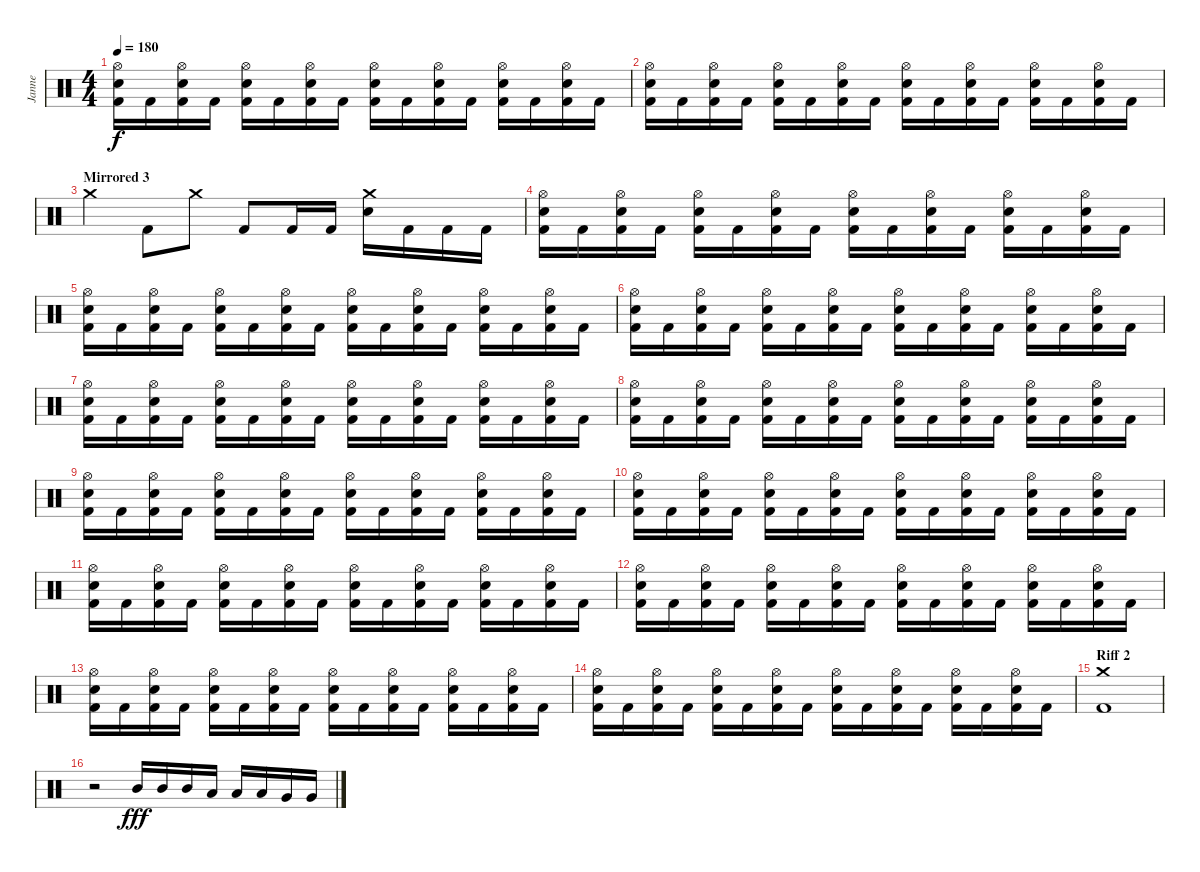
\track ("Janne" "Janne") {instrument percussion}
\staff {score}
\articulation defaults
\ts (4 4)
\tempo 180
\clef neutral
\ks c
("Hi-Hat (open)" "Electric Snare (hit)" "Kick (hit) 2").16{dy f} "Kick (hit) 2".16 ("Hi-Hat (open)" "Electric Snare (hit)" "Kick (hit) 2").16 "Kick (hit) 2".16 ("Hi-Hat (open)" "Electric Snare (hit)" "Kick (hit) 2").16 "Kick (hit) 2".16 ("Hi-Hat (open)" "Electric Snare (hit)" "Kick (hit) 2").16 "Kick (hit) 2".16 ("Hi-Hat (open)" "Electric Snare (hit)" "Kick (hit) 2").16 "Kick (hit) 2".16 ("Hi-Hat (open)" "Electric Snare (hit)" "Kick (hit) 2").16 "Kick (hit) 2".16 ("Hi-Hat (open)" "Electric Snare (hit)" "Kick (hit) 2").16 "Kick (hit) 2".16 ("Hi-Hat (open)" "Electric Snare (hit)" "Kick (hit) 2").16 "Kick (hit) 2".16 |
("Hi-Hat (open)" "Electric Snare (hit)" "Kick (hit) 2").16 "Kick (hit) 2".16 ("Hi-Hat (open)" "Electric Snare (hit)" "Kick (hit) 2").16 "Kick (hit) 2".16 ("Hi-Hat (open)" "Electric Snare (hit)" "Kick (hit) 2").16 "Kick (hit) 2".16 ("Hi-Hat (open)" "Electric Snare (hit)" "Kick (hit) 2").16 "Kick (hit) 2".16 ("Hi-Hat (open)" "Electric Snare (hit)" "Kick (hit) 2").16 "Kick (hit) 2".16 ("Hi-Hat (open)" "Electric Snare (hit)" "Kick (hit) 2").16 "Kick (hit) 2".16 ("Hi-Hat (open)" "Electric Snare (hit)" "Kick (hit) 2").16 "Kick (hit) 2".16 ("Hi-Hat (open)" "Electric Snare (hit)" "Kick (hit) 2").16 "Kick (hit) 2".16 |
\section ("" "Mirrored 3")
"Crash medium (hit)".4 "Kick (hit) 2".8 "Crash medium (hit)".8 "Kick (hit) 2".8 "Kick (hit) 2".16 "Kick (hit) 2".16 ("Crash medium (hit)" "Electric Snare (hit)").16 "Kick (hit) 2".16 "Kick (hit) 2".16 "Kick (hit) 2".16 |
("Hi-Hat (open)" "Electric Snare (hit)" "Kick (hit) 2").16 "Kick (hit) 2".16 ("Hi-Hat (open)" "Electric Snare (hit)" "Kick (hit) 2").16 "Kick (hit) 2".16 ("Hi-Hat (open)" "Electric Snare (hit)" "Kick (hit) 2").16 "Kick (hit) 2".16 ("Hi-Hat (open)" "Electric Snare (hit)" "Kick (hit) 2").16 "Kick (hit) 2".16 ("Hi-Hat (open)" "Electric Snare (hit)" "Kick (hit) 2").16 "Kick (hit) 2".16 ("Hi-Hat (open)" "Electric Snare (hit)" "Kick (hit) 2").16 "Kick (hit) 2".16 ("Hi-Hat (open)" "Electric Snare (hit)" "Kick (hit) 2").16 "Kick (hit) 2".16 ("Hi-Hat (open)" "Electric Snare (hit)" "Kick (hit) 2").16 "Kick (hit) 2".16 |
("Hi-Hat (open)" "Electric Snare (hit)" "Kick (hit) 2").16 "Kick (hit) 2".16 ("Hi-Hat (open)" "Electric Snare (hit)" "Kick (hit) 2").16 "Kick (hit) 2".16 ("Hi-Hat (open)" "Electric Snare (hit)" "Kick (hit) 2").16 "Kick (hit) 2".16 ("Hi-Hat (open)" "Electric Snare (hit)" "Kick (hit) 2").16 "Kick (hit) 2".16 ("Hi-Hat (open)" "Electric Snare (hit)" "Kick (hit) 2").16 "Kick (hit) 2".16 ("Hi-Hat (open)" "Electric Snare (hit)" "Kick (hit) 2").16 "Kick (hit) 2".16 ("Hi-Hat (open)" "Electric Snare (hit)" "Kick (hit) 2").16 "Kick (hit) 2".16 ("Hi-Hat (open)" "Electric Snare (hit)" "Kick (hit) 2").16 "Kick (hit) 2".16 |
("Hi-Hat (open)" "Electric Snare (hit)" "Kick (hit) 2").16 "Kick (hit) 2".16 ("Hi-Hat (open)" "Electric Snare (hit)" "Kick (hit) 2").16 "Kick (hit) 2".16 ("Hi-Hat (open)" "Electric Snare (hit)" "Kick (hit) 2").16 "Kick (hit) 2".16 ("Hi-Hat (open)" "Electric Snare (hit)" "Kick (hit) 2").16 "Kick (hit) 2".16 ("Hi-Hat (open)" "Electric Snare (hit)" "Kick (hit) 2").16 "Kick (hit) 2".16 ("Hi-Hat (open)" "Electric Snare (hit)" "Kick (hit) 2").16 "Kick (hit) 2".16 ("Hi-Hat (open)" "Electric Snare (hit)" "Kick (hit) 2").16 "Kick (hit) 2".16 ("Hi-Hat (open)" "Electric Snare (hit)" "Kick (hit) 2").16 "Kick (hit) 2".16 |
("Hi-Hat (open)" "Electric Snare (hit)" "Kick (hit) 2").16 "Kick (hit) 2".16 ("Hi-Hat (open)" "Electric Snare (hit)" "Kick (hit) 2").16 "Kick (hit) 2".16 ("Hi-Hat (open)" "Electric Snare (hit)" "Kick (hit) 2").16 "Kick (hit) 2".16 ("Hi-Hat (open)" "Electric Snare (hit)" "Kick (hit) 2").16 "Kick (hit) 2".16 ("Hi-Hat (open)" "Electric Snare (hit)" "Kick (hit) 2").16 "Kick (hit) 2".16 ("Hi-Hat (open)" "Electric Snare (hit)" "Kick (hit) 2").16 "Kick (hit) 2".16 ("Hi-Hat (open)" "Electric Snare (hit)" "Kick (hit) 2").16 "Kick (hit) 2".16 ("Hi-Hat (open)" "Electric Snare (hit)" "Kick (hit) 2").16 "Kick (hit) 2".16 |
("Hi-Hat (open)" "Electric Snare (hit)" "Kick (hit) 2").16 "Kick (hit) 2".16 ("Hi-Hat (open)" "Electric Snare (hit)" "Kick (hit) 2").16 "Kick (hit) 2".16 ("Hi-Hat (open)" "Electric Snare (hit)" "Kick (hit) 2").16 "Kick (hit) 2".16 ("Hi-Hat (open)" "Electric Snare (hit)" "Kick (hit) 2").16 "Kick (hit) 2".16 ("Hi-Hat (open)" "Electric Snare (hit)" "Kick (hit) 2").16 "Kick (hit) 2".16 ("Hi-Hat (open)" "Electric Snare (hit)" "Kick (hit) 2").16 "Kick (hit) 2".16 ("Hi-Hat (open)" "Electric Snare (hit)" "Kick (hit) 2").16 "Kick (hit) 2".16 ("Hi-Hat (open)" "Electric Snare (hit)" "Kick (hit) 2").16 "Kick (hit) 2".16 |
("Hi-Hat (open)" "Electric Snare (hit)" "Kick (hit) 2").16 "Kick (hit) 2".16 ("Hi-Hat (open)" "Electric Snare (hit)" "Kick (hit) 2").16 "Kick (hit) 2".16 ("Hi-Hat (open)" "Electric Snare (hit)" "Kick (hit) 2").16 "Kick (hit) 2".16 ("Hi-Hat (open)" "Electric Snare (hit)" "Kick (hit) 2").16 "Kick (hit) 2".16 ("Hi-Hat (open)" "Electric Snare (hit)" "Kick (hit) 2").16 "Kick (hit) 2".16 ("Hi-Hat (open)" "Electric Snare (hit)" "Kick (hit) 2").16 "Kick (hit) 2".16 ("Hi-Hat (open)" "Electric Snare (hit)" "Kick (hit) 2").16 "Kick (hit) 2".16 ("Hi-Hat (open)" "Electric Snare (hit)" "Kick (hit) 2").16 "Kick (hit) 2".16 |
("Hi-Hat (open)" "Electric Snare (hit)" "Kick (hit) 2").16 "Kick (hit) 2".16 ("Hi-Hat (open)" "Electric Snare (hit)" "Kick (hit) 2").16 "Kick (hit) 2".16 ("Hi-Hat (open)" "Electric Snare (hit)" "Kick (hit) 2").16 "Kick (hit) 2".16 ("Hi-Hat (open)" "Electric Snare (hit)" "Kick (hit) 2").16 "Kick (hit) 2".16 ("Hi-Hat (open)" "Electric Snare (hit)" "Kick (hit) 2").16 "Kick (hit) 2".16 ("Hi-Hat (open)" "Electric Snare (hit)" "Kick (hit) 2").16 "Kick (hit) 2".16 ("Hi-Hat (open)" "Electric Snare (hit)" "Kick (hit) 2").16 "Kick (hit) 2".16 ("Hi-Hat (open)" "Electric Snare (hit)" "Kick (hit) 2").16 "Kick (hit) 2".16 |
("Hi-Hat (open)" "Electric Snare (hit)" "Kick (hit) 2").16 "Kick (hit) 2".16 ("Hi-Hat (open)" "Electric Snare (hit)" "Kick (hit) 2").16 "Kick (hit) 2".16 ("Hi-Hat (open)" "Electric Snare (hit)" "Kick (hit) 2").16 "Kick (hit) 2".16 ("Hi-Hat (open)" "Electric Snare (hit)" "Kick (hit) 2").16 "Kick (hit) 2".16 ("Hi-Hat (open)" "Electric Snare (hit)" "Kick (hit) 2").16 "Kick (hit) 2".16 ("Hi-Hat (open)" "Electric Snare (hit)" "Kick (hit) 2").16 "Kick (hit) 2".16 ("Hi-Hat (open)" "Electric Snare (hit)" "Kick (hit) 2").16 "Kick (hit) 2".16 ("Hi-Hat (open)" "Electric Snare (hit)" "Kick (hit) 2").16 "Kick (hit) 2".16 |
("Hi-Hat (open)" "Electric Snare (hit)" "Kick (hit) 2").16 "Kick (hit) 2".16 ("Hi-Hat (open)" "Electric Snare (hit)" "Kick (hit) 2").16 "Kick (hit) 2".16 ("Hi-Hat (open)" "Electric Snare (hit)" "Kick (hit) 2").16 "Kick (hit) 2".16 ("Hi-Hat (open)" "Electric Snare (hit)" "Kick (hit) 2").16 "Kick (hit) 2".16 ("Hi-Hat (open)" "Electric Snare (hit)" "Kick (hit) 2").16 "Kick (hit) 2".16 ("Hi-Hat (open)" "Electric Snare (hit)" "Kick (hit) 2").16 "Kick (hit) 2".16 ("Hi-Hat (open)" "Electric Snare (hit)" "Kick (hit) 2").16 "Kick (hit) 2".16 ("Hi-Hat (open)" "Electric Snare (hit)" "Kick (hit) 2").16 "Kick (hit) 2".16 |
("Hi-Hat (open)" "Electric Snare (hit)" "Kick (hit) 2").16 "Kick (hit) 2".16 ("Hi-Hat (open)" "Electric Snare (hit)" "Kick (hit) 2").16 "Kick (hit) 2".16 ("Hi-Hat (open)" "Electric Snare (hit)" "Kick (hit) 2").16 "Kick (hit) 2".16 ("Hi-Hat (open)" "Electric Snare (hit)" "Kick (hit) 2").16 "Kick (hit) 2".16 ("Hi-Hat (open)" "Electric Snare (hit)" "Kick (hit) 2").16 "Kick (hit) 2".16 ("Hi-Hat (open)" "Electric Snare (hit)" "Kick (hit) 2").16 "Kick (hit) 2".16 ("Hi-Hat (open)" "Electric Snare (hit)" "Kick (hit) 2").16 "Kick (hit) 2".16 ("Hi-Hat (open)" "Electric Snare (hit)" "Kick (hit) 2").16 "Kick (hit) 2".16 |
("Hi-Hat (open)" "Electric Snare (hit)" "Kick (hit) 2").16 "Kick (hit) 2".16 ("Hi-Hat (open)" "Electric Snare (hit)" "Kick (hit) 2").16 "Kick (hit) 2".16 ("Hi-Hat (open)" "Electric Snare (hit)" "Kick (hit) 2").16 "Kick (hit) 2".16 ("Hi-Hat (open)" "Electric Snare (hit)" "Kick (hit) 2").16 "Kick (hit) 2".16 ("Hi-Hat (open)" "Electric Snare (hit)" "Kick (hit) 2").16 "Kick (hit) 2".16 ("Hi-Hat (open)" "Electric Snare (hit)" "Kick (hit) 2").16 "Kick (hit) 2".16 ("Hi-Hat (open)" "Electric Snare (hit)" "Kick (hit) 2").16 "Kick (hit) 2".16 ("Hi-Hat (open)" "Electric Snare (hit)" "Kick (hit) 2").16 "Kick (hit) 2".16 |
\section ("" "Riff 2")
("Crash medium (hit)" "Kick (hit) 2").1 |
r.2 "Mid Tom (hit)".16{dy fff} "Mid Tom (hit)".16 "Mid Tom (hit)".16 "Low Tom (hit)".16 "Low Tom (hit)".16 "Low Tom (hit)".16 "Very Low Tom (hit)".16 "Very Low Tom (hit)".16
